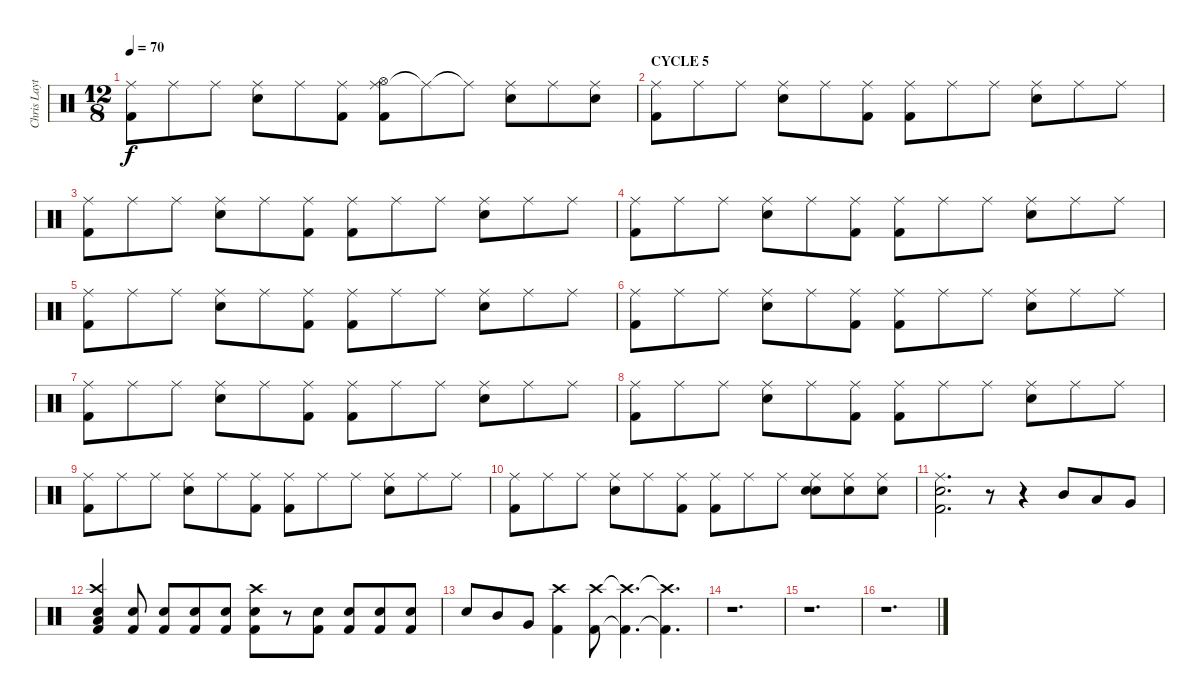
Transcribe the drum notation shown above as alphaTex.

\track ("Chris Layton" "Chris Layt") {instrument percussion}
\staff {score}
\articulation defaults
\ts (12 8)
\tempo 70
\clef neutral
\ks c
("Ride (middle)" "Kick (hit) 2").8{dy f} "Ride (middle)".8 "Ride (middle)".8 ("Ride (middle)" "Snare (hit) 2").8 "Ride (middle)".8 ("Ride (middle)" "Kick (hit) 2").8 ("Ride (middle)" "Hi-Hat (open)" "Kick (hit) 2").8 "Ride (middle)"{t}.8 "Ride (middle)"{t}.8 ("Ride (middle)" "Snare (hit) 2").8 "Ride (middle)".8 ("Ride (middle)" "Snare (hit) 2").8 |
\section ("" "CYCLE 5")
("Ride (middle)" "Kick (hit) 2").8 "Ride (middle)".8 "Ride (middle)".8 ("Ride (middle)" "Snare (hit) 2").8 "Ride (middle)".8 ("Ride (middle)" "Kick (hit) 2").8 ("Ride (middle)" "Kick (hit) 2").8 "Ride (middle)".8 "Ride (middle)".8 ("Ride (middle)" "Snare (hit) 2").8 "Ride (middle)".8 "Ride (middle)".8 |
("Ride (middle)" "Kick (hit) 2").8 "Ride (middle)".8 "Ride (middle)".8 ("Ride (middle)" "Snare (hit) 2").8 "Ride (middle)".8 ("Ride (middle)" "Kick (hit) 2").8 ("Ride (middle)" "Kick (hit) 2").8 "Ride (middle)".8 "Ride (middle)".8 ("Ride (middle)" "Snare (hit) 2").8 "Ride (middle)".8 "Ride (middle)".8 |
("Ride (middle)" "Kick (hit) 2").8 "Ride (middle)".8 "Ride (middle)".8 ("Ride (middle)" "Snare (hit) 2").8 "Ride (middle)".8 ("Ride (middle)" "Kick (hit) 2").8 ("Ride (middle)" "Kick (hit) 2").8 "Ride (middle)".8 "Ride (middle)".8 ("Ride (middle)" "Snare (hit) 2").8 "Ride (middle)".8 "Ride (middle)".8 |
("Ride (middle)" "Kick (hit) 2").8 "Ride (middle)".8 "Ride (middle)".8 ("Ride (middle)" "Snare (hit) 2").8 "Ride (middle)".8 ("Ride (middle)" "Kick (hit) 2").8 ("Ride (middle)" "Kick (hit) 2").8 "Ride (middle)".8 "Ride (middle)".8 ("Ride (middle)" "Snare (hit) 2").8 "Ride (middle)".8 "Ride (middle)".8 |
("Ride (middle)" "Kick (hit) 2").8 "Ride (middle)".8 "Ride (middle)".8 ("Ride (middle)" "Snare (hit) 2").8 "Ride (middle)".8 ("Ride (middle)" "Kick (hit) 2").8 ("Ride (middle)" "Kick (hit) 2").8 "Ride (middle)".8 "Ride (middle)".8 ("Ride (middle)" "Snare (hit) 2").8 "Ride (middle)".8 "Ride (middle)".8 |
("Ride (middle)" "Kick (hit) 2").8 "Ride (middle)".8 "Ride (middle)".8 ("Ride (middle)" "Snare (hit) 2").8 "Ride (middle)".8 ("Ride (middle)" "Kick (hit) 2").8 ("Ride (middle)" "Kick (hit) 2").8 "Ride (middle)".8 "Ride (middle)".8 ("Ride (middle)" "Snare (hit) 2").8 "Ride (middle)".8 "Ride (middle)".8 |
("Ride (middle)" "Kick (hit) 2").8 "Ride (middle)".8 "Ride (middle)".8 ("Ride (middle)" "Snare (hit) 2").8 "Ride (middle)".8 ("Ride (middle)" "Kick (hit) 2").8 ("Ride (middle)" "Kick (hit) 2").8 "Ride (middle)".8 "Ride (middle)".8 ("Ride (middle)" "Snare (hit) 2").8 "Ride (middle)".8 "Ride (middle)".8 |
("Ride (middle)" "Kick (hit) 2").8 "Ride (middle)".8 "Ride (middle)".8 ("Ride (middle)" "Snare (hit) 2").8 "Ride (middle)".8 ("Ride (middle)" "Kick (hit) 2").8 ("Ride (middle)" "Kick (hit) 2").8 "Ride (middle)".8 "Ride (middle)".8 ("Ride (middle)" "Snare (hit) 2").8 "Ride (middle)".8 "Ride (middle)".8 |
("Ride (middle)" "Kick (hit) 2").8 "Ride (middle)".8 "Ride (middle)".8 ("Ride (middle)" "Snare (hit) 2").8 "Ride (middle)".8 ("Ride (middle)" "Kick (hit) 2").8 ("Ride (middle)" "Kick (hit) 2").8 "Ride (middle)".8 "Ride (middle)".8 ("Ride (middle)" "Snare (hit) 2" "Snare (hit) 2").8 ("Ride (middle)" "Snare (hit) 2").8 ("Ride (middle)" "Snare (hit) 2").8 |
("Ride (middle)" "Snare (hit) 2" "Kick (hit) 2").2{d} r.8 r.4 "Mid Tom (hit)".8 "Low Tom (hit)".8 "Very Low Tom (hit)".8 |
("Crash high (hit)" "Kick (hit) 2" "Low Floor Tom (hit)" "Snare (hit) 2").4 ("Snare (hit) 2" "Kick (hit) 2").8 ("Snare (hit) 2" "Kick (hit) 2").8 ("Snare (hit) 2" "Kick (hit) 2").8 ("Snare (hit) 2" "Kick (hit) 2").8 ("Crash high (hit)" "Snare (hit) 2" "Kick (hit) 2").8 r.8 ("Snare (hit) 2" "Kick (hit) 2").8 ("Snare (hit) 2" "Kick (hit) 2").8 ("Snare (hit) 2" "Kick (hit) 2").8 ("Snare (hit) 2" "Kick (hit) 2").8 |
"Snare (hit) 2".8 "Mid Tom (hit)".8 "Very Low Tom (hit)".8 ("Crash high (hit)" "Kick (hit) 2").4 ("Crash high (hit)" "Kick (hit) 2").8 ("Crash high (hit)"{t} "Kick (hit) 2"{t}).4{d} ("Crash high (hit)"{t} "Kick (hit) 2"{t}).4{d} |
r.1{d} |
r.1{d} |
r.1{d}
